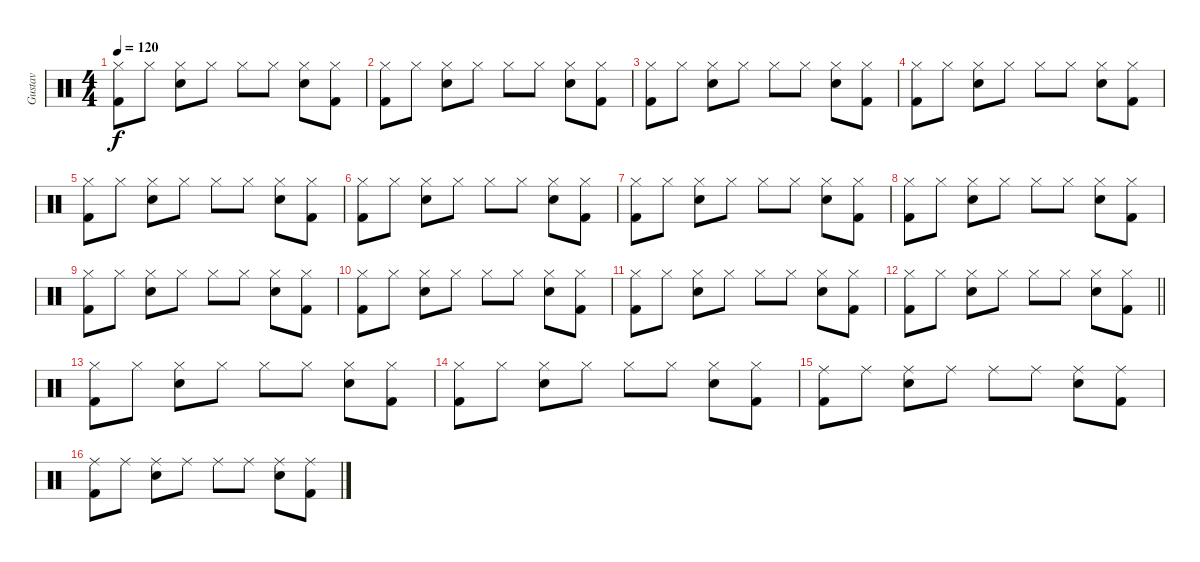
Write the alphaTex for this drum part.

\track ("Gustav" "Gustav") {instrument percussion}
\staff {score}
\articulation defaults
\ts (4 4)
\tempo 120
\clef neutral
\ks c
("Kick (hit) 2" "Hi-Hat (closed)").8{dy f} "Hi-Hat (closed)".8 ("Hi-Hat (closed)" "Snare (hit) 2").8 "Hi-Hat (closed)".8 "Hi-Hat (closed)".8 "Hi-Hat (closed)".8 ("Snare (hit) 2" "Hi-Hat (closed)").8 ("Hi-Hat (closed)" "Kick (hit) 2").8 |
("Kick (hit) 2" "Hi-Hat (closed)").8 "Hi-Hat (closed)".8 ("Hi-Hat (closed)" "Snare (hit) 2").8 "Hi-Hat (closed)".8 "Hi-Hat (closed)".8 "Hi-Hat (closed)".8 ("Snare (hit) 2" "Hi-Hat (closed)").8 ("Hi-Hat (closed)" "Kick (hit) 2").8 |
("Kick (hit) 2" "Hi-Hat (closed)").8 "Hi-Hat (closed)".8 ("Hi-Hat (closed)" "Snare (hit) 2").8 "Hi-Hat (closed)".8 "Hi-Hat (closed)".8 "Hi-Hat (closed)".8 ("Snare (hit) 2" "Hi-Hat (closed)").8 ("Hi-Hat (closed)" "Kick (hit) 2").8 |
("Kick (hit) 2" "Hi-Hat (closed)").8 "Hi-Hat (closed)".8 ("Hi-Hat (closed)" "Snare (hit) 2").8 "Hi-Hat (closed)".8 "Hi-Hat (closed)".8 "Hi-Hat (closed)".8 ("Snare (hit) 2" "Hi-Hat (closed)").8 ("Hi-Hat (closed)" "Kick (hit) 2").8 |
("Kick (hit) 2" "Hi-Hat (closed)").8 "Hi-Hat (closed)".8 ("Hi-Hat (closed)" "Snare (hit) 2").8 "Hi-Hat (closed)".8 "Hi-Hat (closed)".8 "Hi-Hat (closed)".8 ("Snare (hit) 2" "Hi-Hat (closed)").8 ("Hi-Hat (closed)" "Kick (hit) 2").8 |
("Kick (hit) 2" "Hi-Hat (closed)").8 "Hi-Hat (closed)".8 ("Hi-Hat (closed)" "Snare (hit) 2").8 "Hi-Hat (closed)".8 "Hi-Hat (closed)".8 "Hi-Hat (closed)".8 ("Snare (hit) 2" "Hi-Hat (closed)").8 ("Hi-Hat (closed)" "Kick (hit) 2").8 |
("Kick (hit) 2" "Hi-Hat (closed)").8{volume 12} "Hi-Hat (closed)".8 ("Hi-Hat (closed)" "Snare (hit) 2").8 "Hi-Hat (closed)".8 "Hi-Hat (closed)".8 "Hi-Hat (closed)".8 ("Snare (hit) 2" "Hi-Hat (closed)").8 ("Hi-Hat (closed)" "Kick (hit) 2").8 |
("Kick (hit) 2" "Hi-Hat (closed)").8 "Hi-Hat (closed)".8 ("Hi-Hat (closed)" "Snare (hit) 2").8 "Hi-Hat (closed)".8 "Hi-Hat (closed)".8 "Hi-Hat (closed)".8 ("Snare (hit) 2" "Hi-Hat (closed)").8 ("Hi-Hat (closed)" "Kick (hit) 2").8 |
("Kick (hit) 2" "Hi-Hat (closed)").8 "Hi-Hat (closed)".8 ("Hi-Hat (closed)" "Snare (hit) 2").8 "Hi-Hat (closed)".8 "Hi-Hat (closed)".8 "Hi-Hat (closed)".8 ("Snare (hit) 2" "Hi-Hat (closed)").8 ("Hi-Hat (closed)" "Kick (hit) 2").8 |
("Kick (hit) 2" "Hi-Hat (closed)").8 "Hi-Hat (closed)".8 ("Hi-Hat (closed)" "Snare (hit) 2").8 "Hi-Hat (closed)".8 "Hi-Hat (closed)".8 "Hi-Hat (closed)".8 ("Snare (hit) 2" "Hi-Hat (closed)").8 ("Hi-Hat (closed)" "Kick (hit) 2").8 |
("Kick (hit) 2" "Hi-Hat (closed)").8 "Hi-Hat (closed)".8 ("Hi-Hat (closed)" "Snare (hit) 2").8 "Hi-Hat (closed)".8 "Hi-Hat (closed)".8 "Hi-Hat (closed)".8 ("Snare (hit) 2" "Hi-Hat (closed)").8 ("Hi-Hat (closed)" "Kick (hit) 2").8 |
\barLineRight lightlight
("Kick (hit) 2" "Hi-Hat (closed)").8 "Hi-Hat (closed)".8 ("Hi-Hat (closed)" "Snare (hit) 2").8 "Hi-Hat (closed)".8 "Hi-Hat (closed)".8 "Hi-Hat (closed)".8 ("Snare (hit) 2" "Hi-Hat (closed)").8 ("Hi-Hat (closed)" "Kick (hit) 2").8 |
("Kick (hit) 2" "Hi-Hat (closed)").8 "Hi-Hat (closed)".8 ("Hi-Hat (closed)" "Snare (hit) 2").8 "Hi-Hat (closed)".8 "Hi-Hat (closed)".8 "Hi-Hat (closed)".8 ("Snare (hit) 2" "Hi-Hat (closed)").8 ("Hi-Hat (closed)" "Kick (hit) 2").8 |
("Kick (hit) 2" "Hi-Hat (closed)").8 "Hi-Hat (closed)".8 ("Hi-Hat (closed)" "Snare (hit) 2").8 "Hi-Hat (closed)".8 "Hi-Hat (closed)".8 "Hi-Hat (closed)".8 ("Snare (hit) 2" "Hi-Hat (closed)").8 ("Hi-Hat (closed)" "Kick (hit) 2").8{volume 13} |
("Kick (hit) 2" "Ride (middle)").8 "Ride (middle)".8 ("Ride (middle)" "Snare (hit) 2").8 "Ride (middle)".8 "Ride (middle)".8 "Ride (middle)".8 ("Snare (hit) 2" "Ride (middle)").8 ("Ride (middle)" "Kick (hit) 2").8 |
("Kick (hit) 2" "Ride (middle)").8 "Ride (middle)".8 ("Ride (middle)" "Snare (hit) 2").8 "Ride (middle)".8 "Ride (middle)".8 "Ride (middle)".8 ("Snare (hit) 2" "Ride (middle)").8 ("Ride (middle)" "Kick (hit) 2").8
